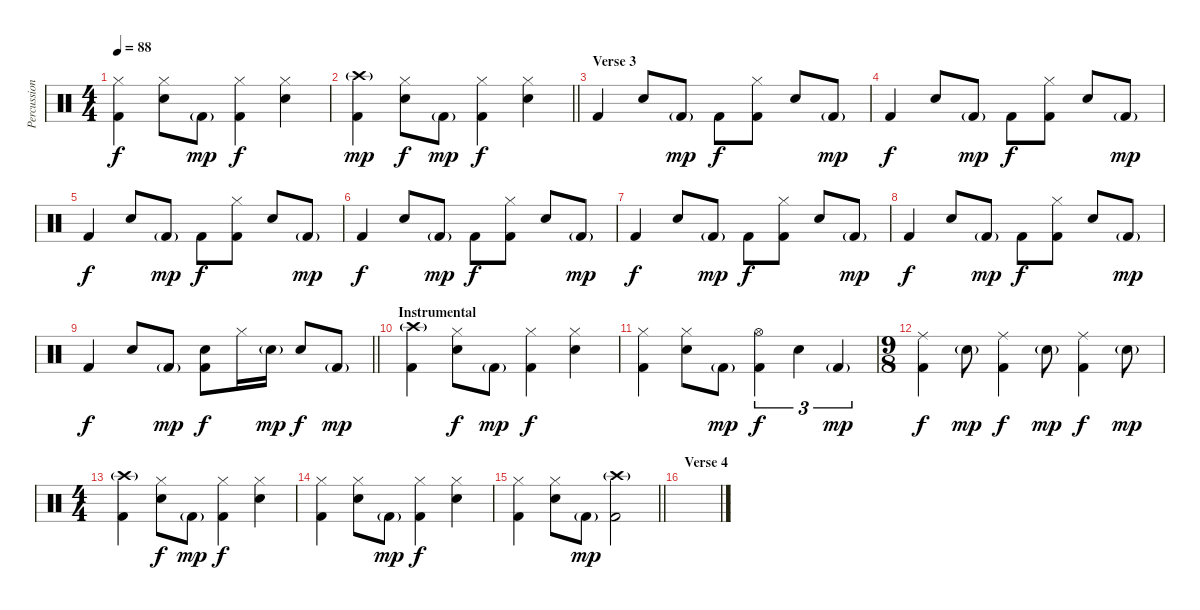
\track ("Percussion" "Percussion") {instrument percussion}
\staff {score}
\articulation defaults
\ts (4 4)
\tempo 88
\clef neutral
\ks c
("Hi-Hat (closed)" "Kick (hit) 2").4{dy f} ("Hi-Hat (closed)" "Snare (hit) 2").8 "Kick (hit) 2"{g}.8{dy mp} ("Hi-Hat (closed)" "Kick (hit) 2").4{dy f} ("Hi-Hat (closed)" "Snare (hit) 2").4 |
\barLineRight lightlight
("Crash high (hit)"{g} "Kick (hit) 2").4{dy mp} ("Hi-Hat (closed)" "Snare (hit) 2").8{dy f} "Kick (hit) 2"{g}.8{dy mp} ("Hi-Hat (closed)" "Kick (hit) 2").4{dy f} ("Hi-Hat (closed)" "Snare (hit) 2").4 |
\section ("" "Verse 3")
"Kick (hit) 2".4 "Snare (hit) 2".8 "Kick (hit) 2"{g}.8{dy mp} "Kick (hit) 2".8{dy f} ("Hi-Hat (closed)" "Kick (hit) 2").8 "Snare (hit) 2".8 "Kick (hit) 2"{g}.8{dy mp} |
"Kick (hit) 2".4{dy f} "Snare (hit) 2".8 "Kick (hit) 2"{g}.8{dy mp} "Kick (hit) 2".8{dy f} ("Hi-Hat (closed)" "Kick (hit) 2").8 "Snare (hit) 2".8 "Kick (hit) 2"{g}.8{dy mp} |
"Kick (hit) 2".4{dy f} "Snare (hit) 2".8 "Kick (hit) 2"{g}.8{dy mp} "Kick (hit) 2".8{dy f} ("Hi-Hat (closed)" "Kick (hit) 2").8 "Snare (hit) 2".8 "Kick (hit) 2"{g}.8{dy mp} |
"Kick (hit) 2".4{dy f} "Snare (hit) 2".8 "Kick (hit) 2"{g}.8{dy mp} "Kick (hit) 2".8{dy f} ("Hi-Hat (closed)" "Kick (hit) 2").8 "Snare (hit) 2".8 "Kick (hit) 2"{g}.8{dy mp} |
"Kick (hit) 2".4{dy f} "Snare (hit) 2".8 "Kick (hit) 2"{g}.8{dy mp} "Kick (hit) 2".8{dy f} ("Hi-Hat (closed)" "Kick (hit) 2").8 "Snare (hit) 2".8 "Kick (hit) 2"{g}.8{dy mp} |
"Kick (hit) 2".4{dy f} "Snare (hit) 2".8 "Kick (hit) 2"{g}.8{dy mp} "Kick (hit) 2".8{dy f} ("Hi-Hat (closed)" "Kick (hit) 2").8 "Snare (hit) 2".8 "Kick (hit) 2"{g}.8{dy mp} |
\barLineRight lightlight "Kick (hit) 2".4{dy f} "Snare (hit) 2".8 "Kick (hit) 2"{g}.8{dy mp}
("Snare (hit) 2" "Kick (hit) 2").8{dy f} "Hi-Hat (closed)".16 "Snare (hit) 2"{g}.16{dy mp} "Snare (hit) 2".8{dy f} "Kick (hit) 2"{g}.8{dy mp} |
\section ("" "Instrumental")
("Crash high (hit)"{g} "Kick (hit) 2").4 ("Hi-Hat (closed)" "Snare (hit) 2").8{dy f} "Kick (hit) 2"{g}.8{dy mp} ("Hi-Hat (closed)" "Kick (hit) 2").4{dy f} ("Hi-Hat (closed)" "Snare (hit) 2").4 |
("Hi-Hat (closed)" "Kick (hit) 2").4 ("Hi-Hat (closed)" "Snare (hit) 2").8 "Kick (hit) 2"{g}.8{dy mp} ("Hi-Hat (open)" "Kick (hit) 2").4{tu (3 2) dy f} "Snare (hit) 2".4{tu (3 2)} "Kick (hit) 2"{g}.4{tu (3 2) dy mp} |
\ts (9 8)
("Ride (middle)" "Kick (hit) 2").4{dy f} "Snare (hit) 2"{g}.8{dy mp} ("Ride (middle)" "Kick (hit) 2").4{dy f} "Snare (hit) 2"{g}.8{dy mp} ("Ride (middle)" "Kick (hit) 2").4{dy f} "Snare (hit) 2"{g}.8{dy mp} |
\ts (4 4)
("Crash high (hit)"{g} "Kick (hit) 2").4 ("Hi-Hat (closed)" "Snare (hit) 2").8{dy f} "Kick (hit) 2"{g}.8{dy mp} ("Hi-Hat (closed)" "Kick (hit) 2").4{dy f} ("Hi-Hat (closed)" "Snare (hit) 2").4 |
("Hi-Hat (closed)" "Kick (hit) 2").4 ("Hi-Hat (closed)" "Snare (hit) 2").8 "Kick (hit) 2"{g}.8{dy mp} ("Hi-Hat (closed)" "Kick (hit) 2").4{dy f} ("Hi-Hat (closed)" "Snare (hit) 2").4 |
\barLineRight lightlight
("Hi-Hat (closed)" "Kick (hit) 2").4 ("Hi-Hat (closed)" "Snare (hit) 2").8 "Kick (hit) 2"{g}.8{dy mp} ("Crash high (hit)"{g} "Kick (hit) 2").2 |
\section ("" "Verse 4")
